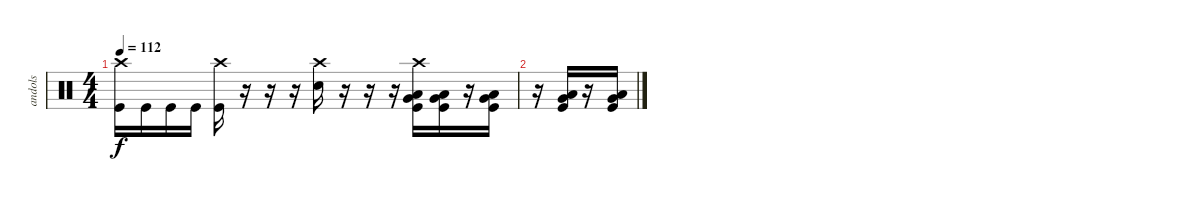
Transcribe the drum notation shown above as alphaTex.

\track ("andols" "andols") {instrument percussion}
\staff {score}
\articulation defaults
\ts (4 4)
\tempo 112
\clef neutral
\ks c
("Crash high (hit)" "Kick (hit)").16{dy f} "Kick (hit)".16 "Kick (hit)".16 "Kick (hit)".16 ("Crash high (hit)" "Kick (hit)").16 r.16 r.16 r.16 ("Crash high (hit)" "Electric Snare (hit)").16 r.16 r.16 r.16 ("Crash high (hit)" "Very Low Tom (hit)" "Low Floor Tom (hit)" "Kick (hit)").16 ("Very Low Tom (hit)" "Low Floor Tom (hit)" "Kick (hit)").16 r.16 ("Very Low Tom (hit)" "Low Floor Tom (hit)" "Kick (hit)").16 |
r.16 ("Very Low Tom (hit)" "Low Floor Tom (hit)" "Kick (hit)").16 r.16 ("Very Low Tom (hit)" "Low Floor Tom (hit)" "Kick (hit)").16
